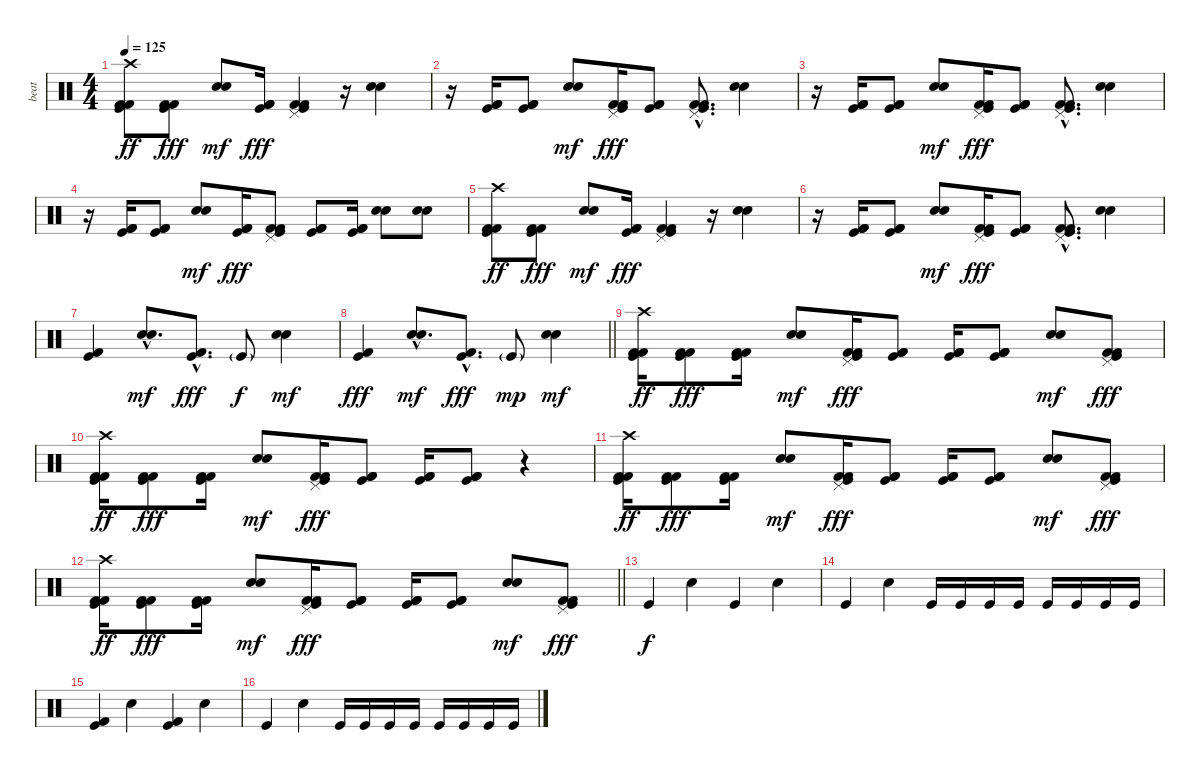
\track ("beat" "beat") {instrument percussion}
\staff {score}
\articulation defaults
\ts (4 4)
\tempo 125
\clef neutral
\ks c
("Kick (hit)" "Kick (hit) 2" "Kick (hit) 2" "Crash high (hit)").8{dy ff} ("Kick (hit)" "Kick (hit) 2" "Kick (hit) 2").8{dy fff} ("Snare (hit) 2" "Hand Clap (hit)").8{dy mf} ("Kick (hit)" "Kick (hit) 2" "Kick (hit) 2").16{dy fff} ("Kick (hit)" "Kick (hit) 2" "Kick (hit) 2" "Pedal Hi-Hat (hit)").4 r.16 ("Snare (hit) 2" "Electric Snare (hit)").4 |
r.16 ("Kick (hit)" "Kick (hit) 2" "Kick (hit) 2").16 ("Kick (hit)" "Kick (hit) 2" "Kick (hit) 2").8 ("Snare (hit) 2" "Hand Clap (hit)").8{dy mf} ("Kick (hit)" "Kick (hit) 2" "Kick (hit) 2" "Pedal Hi-Hat (hit)").16{dy fff} ("Kick (hit)" "Kick (hit) 2" "Kick (hit) 2").8 ("Kick (hit)"{hac} "Kick (hit) 2"{hac} "Kick (hit) 2"{hac} "Pedal Hi-Hat (hit)"{hac}).8{d} ("Snare (hit) 2" "Electric Snare (hit)").4 |
r.16 ("Kick (hit)" "Kick (hit) 2" "Kick (hit) 2").16 ("Kick (hit)" "Kick (hit) 2" "Kick (hit) 2").8 ("Snare (hit) 2" "Hand Clap (hit)").8{dy mf} ("Kick (hit)" "Kick (hit) 2" "Kick (hit) 2" "Pedal Hi-Hat (hit)").16{dy fff} ("Kick (hit)" "Kick (hit) 2" "Kick (hit) 2").8 ("Kick (hit)"{hac} "Kick (hit) 2"{hac} "Kick (hit) 2"{hac} "Pedal Hi-Hat (hit)"{hac}).8{d} ("Snare (hit) 2" "Electric Snare (hit)").4 |
r.16 ("Kick (hit)" "Kick (hit) 2" "Kick (hit) 2").16 ("Kick (hit)" "Kick (hit) 2" "Kick (hit) 2").8 ("Snare (hit) 2" "Hand Clap (hit)").8{dy mf} ("Kick (hit)" "Kick (hit) 2" "Kick (hit) 2").16{dy fff} ("Kick (hit)" "Kick (hit) 2" "Kick (hit) 2" "Pedal Hi-Hat (hit)").8 ("Kick (hit)" "Kick (hit) 2" "Kick (hit) 2").8 ("Kick (hit)" "Kick (hit) 2" "Kick (hit) 2").16 ("Snare (hit) 2" "Electric Snare (hit)").8 ("Snare (hit) 2" "Electric Snare (hit)").8 |
("Kick (hit)" "Kick (hit) 2" "Kick (hit) 2" "Crash high (hit)").8{dy ff} ("Kick (hit)" "Kick (hit) 2" "Kick (hit) 2").8{dy fff} ("Snare (hit) 2" "Hand Clap (hit)").8{dy mf} ("Kick (hit)" "Kick (hit) 2" "Kick (hit) 2").16{dy fff} ("Kick (hit)" "Kick (hit) 2" "Kick (hit) 2" "Pedal Hi-Hat (hit)").4 r.16 ("Snare (hit) 2" "Electric Snare (hit)").4 |
r.16 ("Kick (hit)" "Kick (hit) 2" "Kick (hit) 2").16 ("Kick (hit)" "Kick (hit) 2" "Kick (hit) 2").8 ("Snare (hit) 2" "Hand Clap (hit)").8{dy mf} ("Kick (hit)" "Kick (hit) 2" "Kick (hit) 2" "Pedal Hi-Hat (hit)").16{dy fff} ("Kick (hit)" "Kick (hit) 2" "Kick (hit) 2").8 ("Kick (hit)"{hac} "Kick (hit) 2"{hac} "Kick (hit) 2"{hac} "Pedal Hi-Hat (hit)"{hac}).8{d} ("Snare (hit) 2" "Electric Snare (hit)").4 |
("Kick (hit)" "Kick (hit) 2").4 ("Snare (hit) 2"{hac} "Hand Clap (hit)"{hac}).8{d dy mf} ("Kick (hit)"{hac} "Kick (hit) 2"{hac}).8{d dy fff} "Kick (hit)"{g}.8{dy f} ("Snare (hit) 2" "Hand Clap (hit)").4{dy mf} |
\barLineRight lightlight
("Kick (hit)" "Kick (hit) 2").4{dy fff} ("Snare (hit) 2"{hac} "Hand Clap (hit)"{hac}).8{d dy mf} ("Kick (hit)"{hac} "Kick (hit) 2"{hac}).8{d dy fff} "Kick (hit)"{g}.8{dy mp} ("Snare (hit) 2" "Hand Clap (hit)").4{dy mf} |
("Kick (hit)" "Kick (hit) 2" "Kick (hit) 2" "Crash high (hit)").16{dy ff} ("Kick (hit)" "Kick (hit) 2" "Kick (hit) 2").8{dy fff} ("Kick (hit)" "Kick (hit) 2" "Kick (hit) 2").16 ("Snare (hit) 2" "Hand Clap (hit)").8{dy mf} ("Kick (hit)" "Kick (hit) 2" "Kick (hit) 2" "Pedal Hi-Hat (hit)").16{dy fff} ("Kick (hit)" "Kick (hit) 2" "Kick (hit) 2").8 ("Kick (hit)" "Kick (hit) 2" "Kick (hit) 2").16 ("Kick (hit)" "Kick (hit) 2" "Kick (hit) 2").8 ("Snare (hit) 2" "Hand Clap (hit)").8{dy mf} ("Kick (hit)" "Kick (hit) 2" "Kick (hit) 2" "Pedal Hi-Hat (hit)").8{dy fff} |
("Kick (hit)" "Kick (hit) 2" "Kick (hit) 2" "Crash high (hit)").16{dy ff} ("Kick (hit)" "Kick (hit) 2" "Kick (hit) 2").8{dy fff} ("Kick (hit)" "Kick (hit) 2" "Kick (hit) 2").16 ("Snare (hit) 2" "Hand Clap (hit)").8{dy mf} ("Kick (hit)" "Kick (hit) 2" "Kick (hit) 2" "Pedal Hi-Hat (hit)").16{dy fff} ("Kick (hit)" "Kick (hit) 2" "Kick (hit) 2").8 ("Kick (hit)" "Kick (hit) 2" "Kick (hit) 2").16 ("Kick (hit)" "Kick (hit) 2" "Kick (hit) 2").8 r.4 |
("Kick (hit)" "Kick (hit) 2" "Kick (hit) 2" "Crash high (hit)").16{dy ff} ("Kick (hit)" "Kick (hit) 2" "Kick (hit) 2").8{dy fff} ("Kick (hit)" "Kick (hit) 2" "Kick (hit) 2").16 ("Snare (hit) 2" "Hand Clap (hit)").8{dy mf} ("Kick (hit)" "Kick (hit) 2" "Kick (hit) 2" "Pedal Hi-Hat (hit)").16{dy fff} ("Kick (hit)" "Kick (hit) 2" "Kick (hit) 2").8 ("Kick (hit)" "Kick (hit) 2" "Kick (hit) 2").16 ("Kick (hit)" "Kick (hit) 2" "Kick (hit) 2").8 ("Snare (hit) 2" "Hand Clap (hit)").8{dy mf} ("Kick (hit)" "Kick (hit) 2" "Kick (hit) 2" "Pedal Hi-Hat (hit)").8{dy fff} |
\barLineRight lightlight
("Kick (hit)" "Kick (hit) 2" "Kick (hit) 2" "Crash high (hit)").16{dy ff} ("Kick (hit)" "Kick (hit) 2" "Kick (hit) 2").8{dy fff} ("Kick (hit)" "Kick (hit) 2" "Kick (hit) 2").16 ("Snare (hit) 2" "Hand Clap (hit)").8{dy mf} ("Kick (hit)" "Kick (hit) 2" "Kick (hit) 2" "Pedal Hi-Hat (hit)").16{dy fff} ("Kick (hit)" "Kick (hit) 2" "Kick (hit) 2").8 ("Kick (hit)" "Kick (hit) 2" "Kick (hit) 2").16 ("Kick (hit)" "Kick (hit) 2" "Kick (hit) 2").8 ("Snare (hit) 2" "Hand Clap (hit)").8{dy mf} ("Kick (hit)" "Kick (hit) 2" "Kick (hit) 2" "Pedal Hi-Hat (hit)").8{dy fff} |
"Kick (hit)".4{dy f} "Electric Snare (hit)".4 "Kick (hit)".4 "Electric Snare (hit)".4 |
"Kick (hit)".4 "Electric Snare (hit)".4 "Kick (hit)".16 "Kick (hit)".16 "Kick (hit)".16 "Kick (hit)".16 "Kick (hit)".16 "Kick (hit)".16 "Kick (hit)".16 "Kick (hit)".16 |
("Kick (hit)" "Kick (hit) 2").4 "Electric Snare (hit)".4 ("Kick (hit)" "Kick (hit) 2").4 "Electric Snare (hit)".4 |
"Kick (hit)".4 "Electric Snare (hit)".4 "Kick (hit)".16 "Kick (hit)".16 "Kick (hit)".16 "Kick (hit)".16 "Kick (hit)".16 "Kick (hit)".16 "Kick (hit)".16 "Kick (hit)".16
